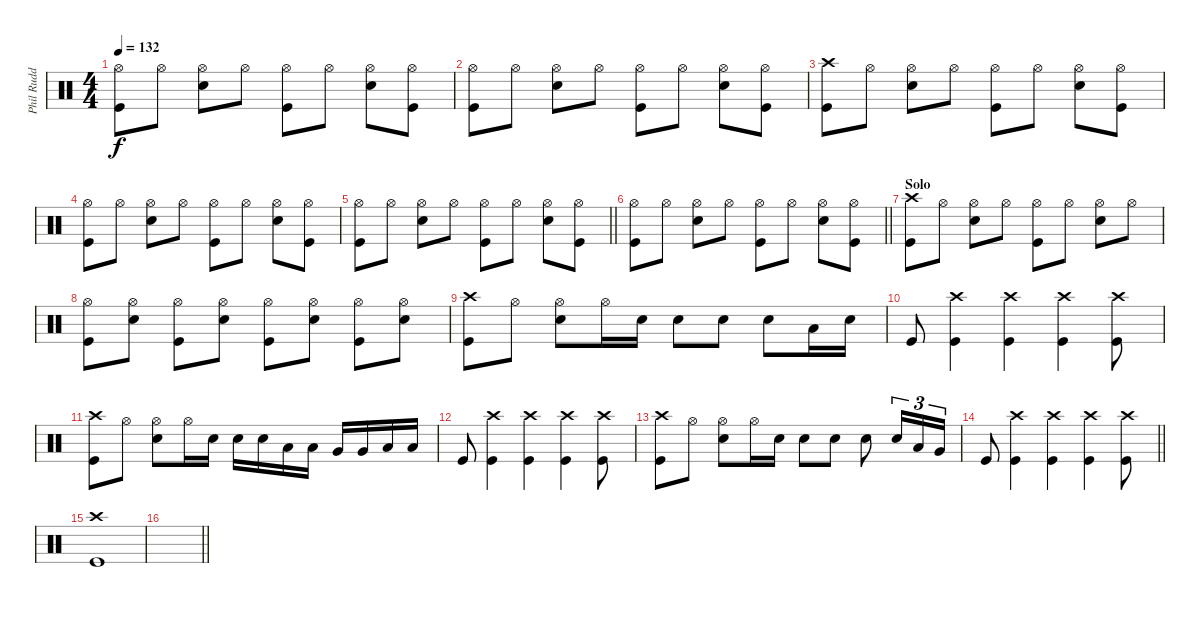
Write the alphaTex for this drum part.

\track ("Phil Rudd" "Phil Rudd") {instrument percussion}
\staff {score}
\articulation defaults
\ts (4 4)
\tempo 132
\clef neutral
\ks c
("Hi-Hat (open)" "Kick (hit)").8{dy f} "Hi-Hat (open)".8 ("Hi-Hat (open)" "Snare (hit) 2").8 "Hi-Hat (open)".8 ("Hi-Hat (open)" "Kick (hit)").8 "Hi-Hat (open)".8 ("Hi-Hat (open)" "Snare (hit) 2").8 ("Hi-Hat (open)" "Kick (hit)").8 |
("Hi-Hat (open)" "Kick (hit)").8 "Hi-Hat (open)".8 ("Hi-Hat (open)" "Snare (hit) 2").8 "Hi-Hat (open)".8 ("Hi-Hat (open)" "Kick (hit)").8 "Hi-Hat (open)".8 ("Hi-Hat (open)" "Snare (hit) 2").8 ("Hi-Hat (open)" "Kick (hit)").8 |
("Crash high (hit)" "Kick (hit)").8 "Hi-Hat (open)".8 ("Hi-Hat (open)" "Snare (hit) 2").8 "Hi-Hat (open)".8 ("Hi-Hat (open)" "Kick (hit)").8 "Hi-Hat (open)".8 ("Hi-Hat (open)" "Snare (hit) 2").8 ("Hi-Hat (open)" "Kick (hit)").8 |
("Hi-Hat (open)" "Kick (hit)").8 "Hi-Hat (open)".8 ("Hi-Hat (open)" "Snare (hit) 2").8 "Hi-Hat (open)".8 ("Hi-Hat (open)" "Kick (hit)").8 "Hi-Hat (open)".8 ("Hi-Hat (open)" "Snare (hit) 2").8 ("Hi-Hat (open)" "Kick (hit)").8 |
\barLineRight lightlight
("Hi-Hat (open)" "Kick (hit)").8 "Hi-Hat (open)".8 ("Hi-Hat (open)" "Snare (hit) 2").8 "Hi-Hat (open)".8 ("Hi-Hat (open)" "Kick (hit)").8 "Hi-Hat (open)".8 ("Hi-Hat (open)" "Snare (hit) 2").8 ("Hi-Hat (open)" "Kick (hit)").8 |
\barLineRight lightlight
("Hi-Hat (open)" "Kick (hit)").8 "Hi-Hat (open)".8 ("Hi-Hat (open)" "Snare (hit) 2").8 "Hi-Hat (open)".8 ("Hi-Hat (open)" "Kick (hit)").8 "Hi-Hat (open)".8 ("Hi-Hat (open)" "Snare (hit) 2").8 ("Hi-Hat (open)" "Kick (hit)").8 |
\section ("" "Solo")
("Crash high (hit)" "Kick (hit)").8 "Hi-Hat (open)".8 ("Hi-Hat (open)" "Snare (hit) 2").8 "Hi-Hat (open)".8 ("Hi-Hat (open)" "Kick (hit)").8 "Hi-Hat (open)".8 ("Hi-Hat (open)" "Snare (hit) 2").8 "Hi-Hat (open)".8 |
("Hi-Hat (open)" "Kick (hit)").8 ("Hi-Hat (open)" "Snare (hit) 2").8 ("Hi-Hat (open)" "Kick (hit)").8 ("Hi-Hat (open)" "Snare (hit) 2").8 ("Hi-Hat (open)" "Kick (hit)").8 ("Hi-Hat (open)" "Snare (hit) 2").8 ("Hi-Hat (open)" "Kick (hit)").8 ("Hi-Hat (open)" "Snare (hit) 2").8 |
("Crash high (hit)" "Kick (hit)").8 "Hi-Hat (open)".8 ("Hi-Hat (open)" "Snare (hit) 2").8 "Hi-Hat (open)".16 "Snare (hit) 2".16 "Snare (hit) 2".8 "Snare (hit) 2".8 "Snare (hit) 2".8 "Low Tom (hit)".16 "Snare (hit) 2".16 |
"Kick (hit)".8 ("Crash high (hit)" "Kick (hit)").4 ("Crash high (hit)" "Kick (hit)").4 ("Crash high (hit)" "Kick (hit)").4 ("Crash high (hit)" "Kick (hit)").8 |
("Crash high (hit)" "Kick (hit)").8 "Hi-Hat (open)".8 ("Hi-Hat (open)" "Snare (hit) 2").8 "Hi-Hat (open)".16 "Snare (hit) 2".16 "Snare (hit) 2".16 "Snare (hit) 2".16 "Low Tom (hit)".16 "Low Tom (hit)".16 "Very Low Tom (hit)".16 "Very Low Tom (hit)".16 "Low Floor Tom (hit)".16 "Low Floor Tom (hit)".16 |
"Kick (hit)".8 ("Crash high (hit)" "Kick (hit)").4 ("Crash high (hit)" "Kick (hit)").4 ("Crash high (hit)" "Kick (hit)").4 ("Crash high (hit)" "Kick (hit)").8 |
("Crash high (hit)" "Kick (hit)").8 "Hi-Hat (open)".8 ("Hi-Hat (open)" "Snare (hit) 2").8 "Hi-Hat (open)".16 "Snare (hit) 2".16 "Snare (hit) 2".8 "Snare (hit) 2".8 "Snare (hit) 2".8 "Snare (hit) 2".16{tu (3 2)} "Low Tom (hit)".16{tu (3 2)} "Very Low Tom (hit)".16{tu (3 2)} |
\barLineRight lightlight "Kick (hit)".8
("Crash high (hit)" "Kick (hit)").4 ("Crash high (hit)" "Kick (hit)").4 ("Crash high (hit)" "Kick (hit)").4 ("Crash high (hit)" "Kick (hit)").8 |
\section ("" " ")
("Crash high (hit)" "Kick (hit)").1 |
\barLineRight lightlight
